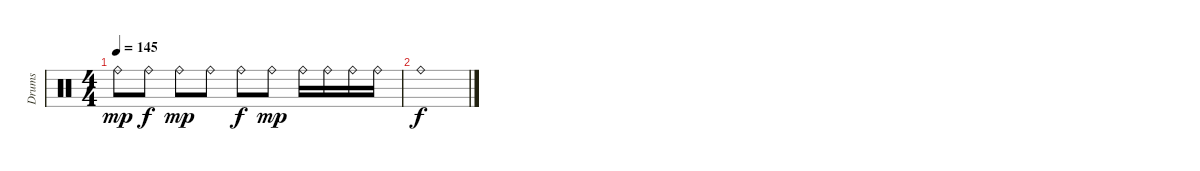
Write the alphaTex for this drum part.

\track ("Drums" "Drums") {instrument percussion}
\staff {score}
\articulation defaults
\ts (4 4)
\tempo 145
\clef neutral
\ks c "Ride (bell)".8{dy mp} "Ride (bell)".8{dy f} "Ride (bell)".8{dy mp} "Ride (bell)".8 "Ride (bell)".8{dy f} "Ride (bell)".8{dy mp} "Ride (bell)".16 "Ride (bell)".16 "Ride (bell)".16 "Ride (bell)".16
|
"Ride (bell)".1{dy f}
